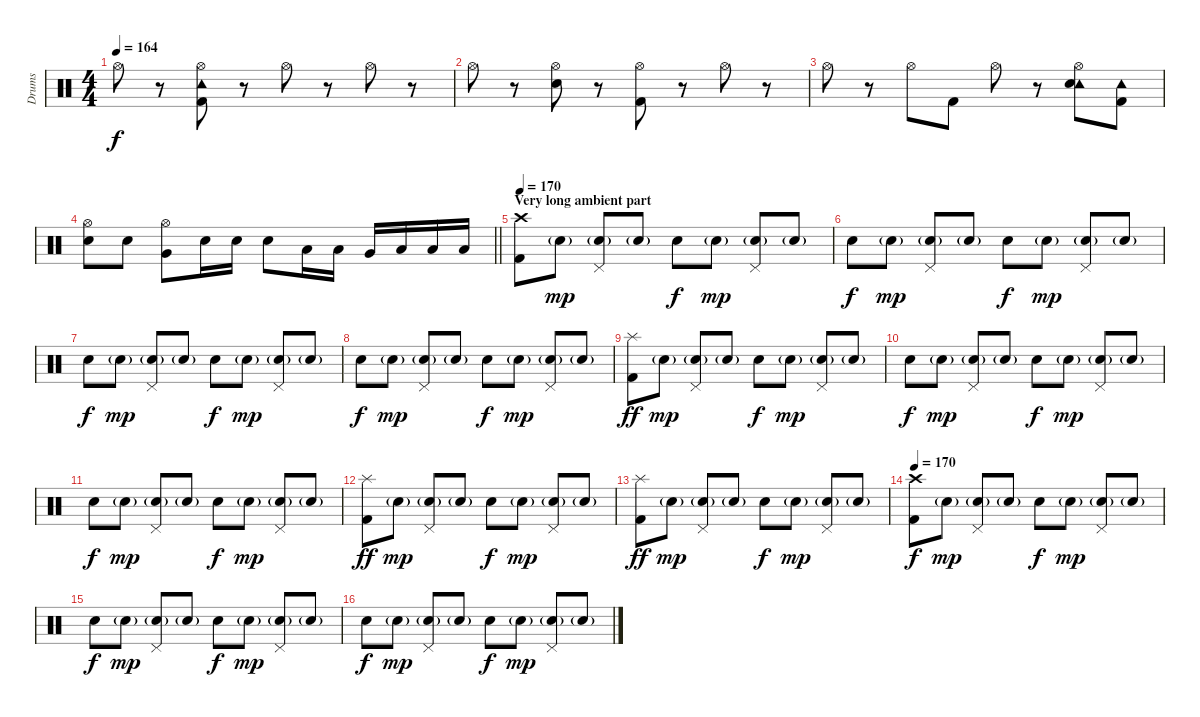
\track ("Drums" "Drums") {instrument percussion}
\staff {score}
\articulation defaults
\ts (4 4)
\tempo 164
\clef neutral
\ks c "Hi-Hat (open)".8{dy f}
r.8 ("Tambourine (hit)" "Hi-Hat (open)" "Kick (hit) 2").8 r.8 "Hi-Hat (open)".8 r.8 "Hi-Hat (open)".8 r.8 |
"Hi-Hat (open)".8 r.8 ("Hi-Hat (open)" "Electric Snare (hit)").8 r.8 ("Hi-Hat (open)" "Kick (hit) 2").8 r.8 "Hi-Hat (open)".8 r.8 |
"Hi-Hat (open)".8 r.8 "Hi-Hat (open)".8 "Kick (hit) 2".8 "Hi-Hat (open)".8 r.8 ("Tambourine (hit)" "Hi-Hat (open)" "Electric Snare (hit)").8 ("Tambourine (hit)" "Kick (hit) 2").8 |
\barLineRight lightlight
("Hi-Hat (open)" "Electric Snare (hit)").8 "Electric Snare (hit)".8 ("Hi-Hat (open)" "Very Low Tom (hit)").8 "Electric Snare (hit)".16 "Electric Snare (hit)".16 "Electric Snare (hit)".8 "Low Tom (hit)".16 "Low Tom (hit)".16 "Very Low Tom (hit)".16 "Low Floor Tom (hit)".16 "Low Floor Tom (hit)".16 "Low Floor Tom (hit)".16 |
\section ("" "Very long ambient part")
\tempo 170
("Crash high (hit)" "Kick (hit) 2").8 "Electric Snare (hit)"{g}.8{dy mp} ("Pedal Hi-Hat (hit)" "Electric Snare (hit)"{g}).8 "Electric Snare (hit)"{g}.8 "Electric Snare (hit)".8{dy f} "Electric Snare (hit)"{g}.8{dy mp} ("Pedal Hi-Hat (hit)" "Electric Snare (hit)"{g}).8 "Electric Snare (hit)"{g}.8 |
"Electric Snare (hit)".8{dy f} "Electric Snare (hit)"{g}.8{dy mp} ("Pedal Hi-Hat (hit)" "Electric Snare (hit)"{g}).8 "Electric Snare (hit)"{g}.8 "Electric Snare (hit)".8{dy f} "Electric Snare (hit)"{g}.8{dy mp} ("Pedal Hi-Hat (hit)" "Electric Snare (hit)"{g}).8 "Electric Snare (hit)"{g}.8 |
"Electric Snare (hit)".8{dy f} "Electric Snare (hit)"{g}.8{dy mp} ("Pedal Hi-Hat (hit)" "Electric Snare (hit)"{g}).8 "Electric Snare (hit)"{g}.8 "Electric Snare (hit)".8{dy f} "Electric Snare (hit)"{g}.8{dy mp} ("Pedal Hi-Hat (hit)" "Electric Snare (hit)"{g}).8 "Electric Snare (hit)"{g}.8 |
"Electric Snare (hit)".8{dy f} "Electric Snare (hit)"{g}.8{dy mp} ("Pedal Hi-Hat (hit)" "Electric Snare (hit)"{g}).8 "Electric Snare (hit)"{g}.8 "Electric Snare (hit)".8{dy f} "Electric Snare (hit)"{g}.8{dy mp} ("Pedal Hi-Hat (hit)" "Electric Snare (hit)"{g}).8 "Electric Snare (hit)"{g}.8 |
("Splash (hit)" "Kick (hit) 2").8{dy ff} "Electric Snare (hit)"{g}.8{dy mp} ("Pedal Hi-Hat (hit)" "Electric Snare (hit)"{g}).8 "Electric Snare (hit)"{g}.8 "Electric Snare (hit)".8{dy f} "Electric Snare (hit)"{g}.8{dy mp} ("Pedal Hi-Hat (hit)" "Electric Snare (hit)"{g}).8 "Electric Snare (hit)"{g}.8 |
"Electric Snare (hit)".8{dy f} "Electric Snare (hit)"{g}.8{dy mp} ("Pedal Hi-Hat (hit)" "Electric Snare (hit)"{g}).8 "Electric Snare (hit)"{g}.8 "Electric Snare (hit)".8{dy f} "Electric Snare (hit)"{g}.8{dy mp} ("Pedal Hi-Hat (hit)" "Electric Snare (hit)"{g}).8 "Electric Snare (hit)"{g}.8 |
"Electric Snare (hit)".8{dy f} "Electric Snare (hit)"{g}.8{dy mp} ("Pedal Hi-Hat (hit)" "Electric Snare (hit)"{g}).8 "Electric Snare (hit)"{g}.8 "Electric Snare (hit)".8{dy f} "Electric Snare (hit)"{g}.8{dy mp} ("Pedal Hi-Hat (hit)" "Electric Snare (hit)"{g}).8 "Electric Snare (hit)"{g}.8 |
("Splash (hit)" "Kick (hit) 2").8{dy ff} "Electric Snare (hit)"{g}.8{dy mp} ("Pedal Hi-Hat (hit)" "Electric Snare (hit)"{g}).8 "Electric Snare (hit)"{g}.8 "Electric Snare (hit)".8{dy f} "Electric Snare (hit)"{g}.8{dy mp} ("Pedal Hi-Hat (hit)" "Electric Snare (hit)"{g}).8 "Electric Snare (hit)"{g}.8 |
("Splash (hit)" "Kick (hit) 2").8{dy ff} "Electric Snare (hit)"{g}.8{dy mp} ("Pedal Hi-Hat (hit)" "Electric Snare (hit)"{g}).8 "Electric Snare (hit)"{g}.8 "Electric Snare (hit)".8{dy f} "Electric Snare (hit)"{g}.8{dy mp} ("Pedal Hi-Hat (hit)" "Electric Snare (hit)"{g}).8 "Electric Snare (hit)"{g}.8 |
\tempo 170
("Crash high (hit)" "Kick (hit) 2").8{dy f} "Electric Snare (hit)"{g}.8{dy mp} ("Pedal Hi-Hat (hit)" "Electric Snare (hit)"{g}).8 "Electric Snare (hit)"{g}.8 "Electric Snare (hit)".8{dy f} "Electric Snare (hit)"{g}.8{dy mp} ("Pedal Hi-Hat (hit)" "Electric Snare (hit)"{g}).8 "Electric Snare (hit)"{g}.8 |
"Electric Snare (hit)".8{dy f} "Electric Snare (hit)"{g}.8{dy mp} ("Pedal Hi-Hat (hit)" "Electric Snare (hit)"{g}).8 "Electric Snare (hit)"{g}.8 "Electric Snare (hit)".8{dy f} "Electric Snare (hit)"{g}.8{dy mp} ("Pedal Hi-Hat (hit)" "Electric Snare (hit)"{g}).8 "Electric Snare (hit)"{g}.8 |
"Electric Snare (hit)".8{dy f} "Electric Snare (hit)"{g}.8{dy mp} ("Pedal Hi-Hat (hit)" "Electric Snare (hit)"{g}).8 "Electric Snare (hit)"{g}.8 "Electric Snare (hit)".8{dy f} "Electric Snare (hit)"{g}.8{dy mp} ("Pedal Hi-Hat (hit)" "Electric Snare (hit)"{g}).8 "Electric Snare (hit)"{g}.8
